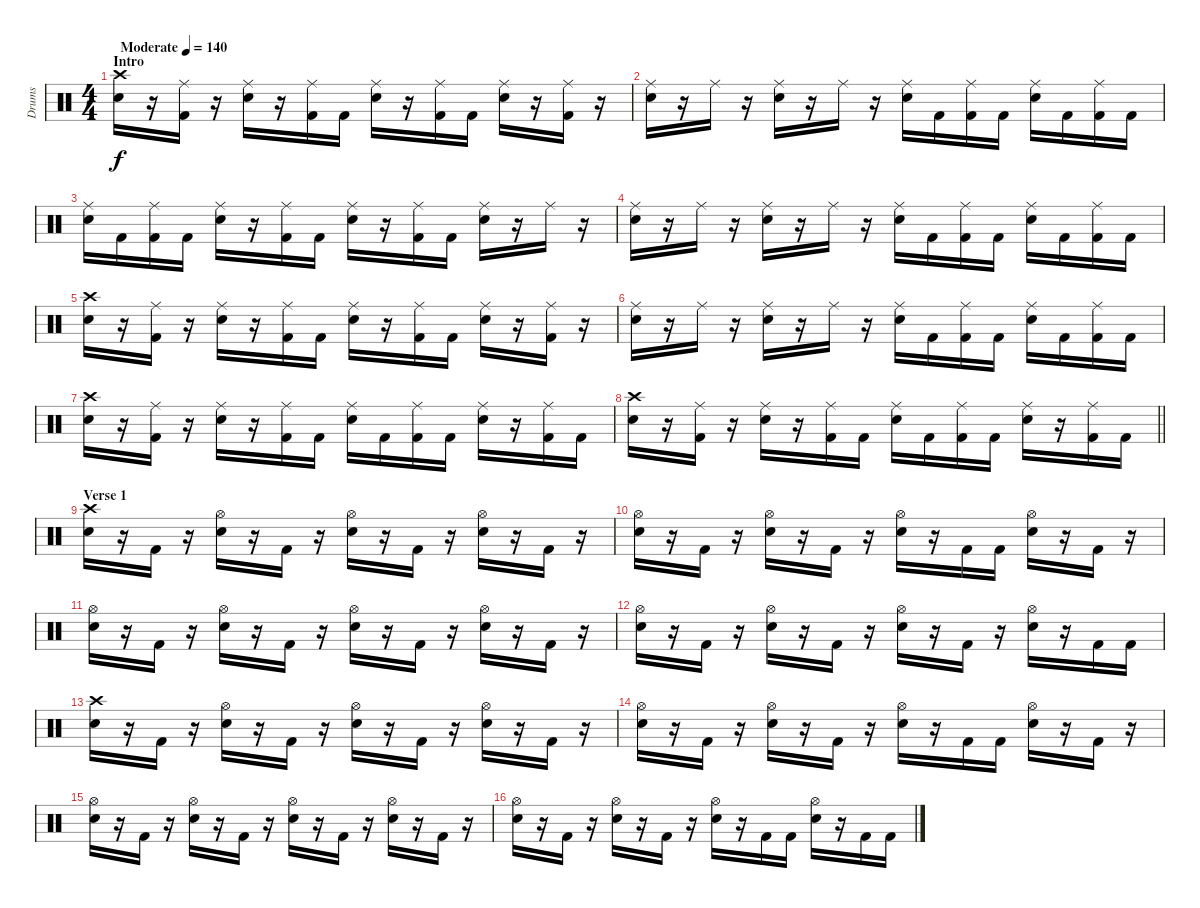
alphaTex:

\track ("Drums" "Drums") {instrument percussion}
\staff {score}
\articulation defaults
\ts (4 4)
\section ("" "Intro")
\tempo (140 "Moderate")
\clef neutral
\ks c
("Crash high (hit)" "Snare (hit) 2").16{dy f} r.16 ("Ride (middle)" "Kick (hit) 2").16 r.16 ("Ride (middle)" "Snare (hit) 2").16 r.16 ("Ride (middle)" "Kick (hit) 2").16 "Kick (hit) 2".16 ("Ride (middle)" "Snare (hit) 2").16 r.16 ("Ride (middle)" "Kick (hit) 2").16 "Kick (hit) 2".16 ("Ride (middle)" "Snare (hit) 2").16 r.16 ("Ride (middle)" "Kick (hit) 2").16 r.16 |
("Ride (middle)" "Snare (hit) 2").16 r.16 "Ride (middle)".16 r.16 ("Ride (middle)" "Snare (hit) 2").16 r.16 "Ride (middle)".16 r.16 ("Ride (middle)" "Snare (hit) 2").16 "Kick (hit) 2".16 ("Ride (middle)" "Kick (hit) 2").16 "Kick (hit) 2".16 ("Ride (middle)" "Snare (hit) 2").16 "Kick (hit) 2".16 ("Ride (middle)" "Kick (hit) 2").16 "Kick (hit) 2".16 |
("Ride (middle)" "Snare (hit) 2").16 "Kick (hit) 2".16 ("Ride (middle)" "Kick (hit) 2").16 "Kick (hit) 2".16 ("Ride (middle)" "Snare (hit) 2").16 r.16 ("Ride (middle)" "Kick (hit) 2").16 "Kick (hit) 2".16 ("Ride (middle)" "Snare (hit) 2").16 r.16 ("Ride (middle)" "Kick (hit) 2").16 "Kick (hit) 2".16 ("Ride (middle)" "Snare (hit) 2").16 r.16 "Ride (middle)".16 r.16 |
("Ride (middle)" "Snare (hit) 2").16 r.16 "Ride (middle)".16 r.16 ("Ride (middle)" "Snare (hit) 2").16 r.16 "Ride (middle)".16 r.16 ("Ride (middle)" "Snare (hit) 2").16 "Kick (hit) 2".16 ("Ride (middle)" "Kick (hit) 2").16 "Kick (hit) 2".16 ("Ride (middle)" "Snare (hit) 2").16 "Kick (hit) 2".16 ("Ride (middle)" "Kick (hit) 2").16 "Kick (hit) 2".16 |
("Crash high (hit)" "Snare (hit) 2").16 r.16 ("Ride (middle)" "Kick (hit) 2").16 r.16 ("Ride (middle)" "Snare (hit) 2").16 r.16 ("Ride (middle)" "Kick (hit) 2").16 "Kick (hit) 2".16 ("Ride (middle)" "Snare (hit) 2").16 r.16 ("Ride (middle)" "Kick (hit) 2").16 "Kick (hit) 2".16 ("Ride (middle)" "Snare (hit) 2").16 r.16 ("Ride (middle)" "Kick (hit) 2").16 r.16 |
("Ride (middle)" "Snare (hit) 2").16 r.16 "Ride (middle)".16 r.16 ("Ride (middle)" "Snare (hit) 2").16 r.16 "Ride (middle)".16 r.16 ("Ride (middle)" "Snare (hit) 2").16 "Kick (hit) 2".16 ("Ride (middle)" "Kick (hit) 2").16 "Kick (hit) 2".16 ("Ride (middle)" "Snare (hit) 2").16 "Kick (hit) 2".16 ("Ride (middle)" "Kick (hit) 2").16 "Kick (hit) 2".16 |
("Crash high (hit)" "Snare (hit) 2").16 r.16 ("Ride (middle)" "Kick (hit) 2").16 r.16 ("Ride (middle)" "Snare (hit) 2").16 r.16 ("Ride (middle)" "Kick (hit) 2").16 "Kick (hit) 2".16 ("Ride (middle)" "Snare (hit) 2").16 "Kick (hit) 2".16 ("Ride (middle)" "Kick (hit) 2").16 "Kick (hit) 2".16 ("Ride (middle)" "Snare (hit) 2").16 r.16 ("Ride (middle)" "Kick (hit) 2").16 "Kick (hit) 2".16 |
\barLineRight lightlight
("Crash high (hit)" "Snare (hit) 2").16 r.16 ("Ride (middle)" "Kick (hit) 2").16 r.16 ("Ride (middle)" "Snare (hit) 2").16 r.16 ("Ride (middle)" "Kick (hit) 2").16 "Kick (hit) 2".16 ("Ride (middle)" "Snare (hit) 2").16 "Kick (hit) 2".16 ("Ride (middle)" "Kick (hit) 2").16 "Kick (hit) 2".16 ("Ride (middle)" "Snare (hit) 2").16 r.16 ("Ride (middle)" "Kick (hit) 2").16 "Kick (hit) 2".16 |
\section ("" "Verse 1")
("Crash high (hit)" "Snare (hit) 2").16 r.16 "Kick (hit) 2".16 r.16 ("Hi-Hat (open)" "Snare (hit) 2").16 r.16 "Kick (hit) 2".16 r.16 ("Hi-Hat (open)" "Snare (hit) 2").16 r.16 "Kick (hit) 2".16 r.16 ("Hi-Hat (open)" "Snare (hit) 2").16 r.16 "Kick (hit) 2".16 r.16 |
("Hi-Hat (open)" "Snare (hit) 2").16 r.16 "Kick (hit) 2".16 r.16 ("Hi-Hat (open)" "Snare (hit) 2").16 r.16 "Kick (hit) 2".16 r.16 ("Hi-Hat (open)" "Snare (hit) 2").16 r.16 "Kick (hit) 2".16 "Kick (hit) 2".16 ("Hi-Hat (open)" "Snare (hit) 2").16 r.16 "Kick (hit) 2".16 r.16 |
("Hi-Hat (open)" "Snare (hit) 2").16 r.16 "Kick (hit) 2".16 r.16 ("Hi-Hat (open)" "Snare (hit) 2").16 r.16 "Kick (hit) 2".16 r.16 ("Hi-Hat (open)" "Snare (hit) 2").16 r.16 "Kick (hit) 2".16 r.16 ("Hi-Hat (open)" "Snare (hit) 2").16 r.16 "Kick (hit) 2".16 r.16 |
("Hi-Hat (open)" "Snare (hit) 2").16 r.16 "Kick (hit) 2".16 r.16 ("Hi-Hat (open)" "Snare (hit) 2").16 r.16 "Kick (hit) 2".16 r.16 ("Hi-Hat (open)" "Snare (hit) 2").16 r.16 "Kick (hit) 2".16 r.16 ("Hi-Hat (open)" "Snare (hit) 2").16 r.16 "Kick (hit) 2".16 "Kick (hit) 2".16 |
("Crash high (hit)" "Snare (hit) 2").16 r.16 "Kick (hit) 2".16 r.16 ("Hi-Hat (open)" "Snare (hit) 2").16 r.16 "Kick (hit) 2".16 r.16 ("Hi-Hat (open)" "Snare (hit) 2").16 r.16 "Kick (hit) 2".16 r.16 ("Hi-Hat (open)" "Snare (hit) 2").16 r.16 "Kick (hit) 2".16 r.16 |
("Hi-Hat (open)" "Snare (hit) 2").16 r.16 "Kick (hit) 2".16 r.16 ("Hi-Hat (open)" "Snare (hit) 2").16 r.16 "Kick (hit) 2".16 r.16 ("Hi-Hat (open)" "Snare (hit) 2").16 r.16 "Kick (hit) 2".16 "Kick (hit) 2".16 ("Hi-Hat (open)" "Snare (hit) 2").16 r.16 "Kick (hit) 2".16 r.16 |
("Hi-Hat (open)" "Snare (hit) 2").16 r.16 "Kick (hit) 2".16 r.16 ("Hi-Hat (open)" "Snare (hit) 2").16 r.16 "Kick (hit) 2".16 r.16 ("Hi-Hat (open)" "Snare (hit) 2").16 r.16 "Kick (hit) 2".16 r.16 ("Hi-Hat (open)" "Snare (hit) 2").16 r.16 "Kick (hit) 2".16 r.16 |
("Hi-Hat (open)" "Snare (hit) 2").16 r.16 "Kick (hit) 2".16 r.16 ("Hi-Hat (open)" "Snare (hit) 2").16 r.16 "Kick (hit) 2".16 r.16 ("Hi-Hat (open)" "Snare (hit) 2").16 r.16 "Kick (hit) 2".16 "Kick (hit) 2".16 ("Hi-Hat (open)" "Snare (hit) 2").16 r.16 "Kick (hit) 2".16 "Kick (hit) 2".16
